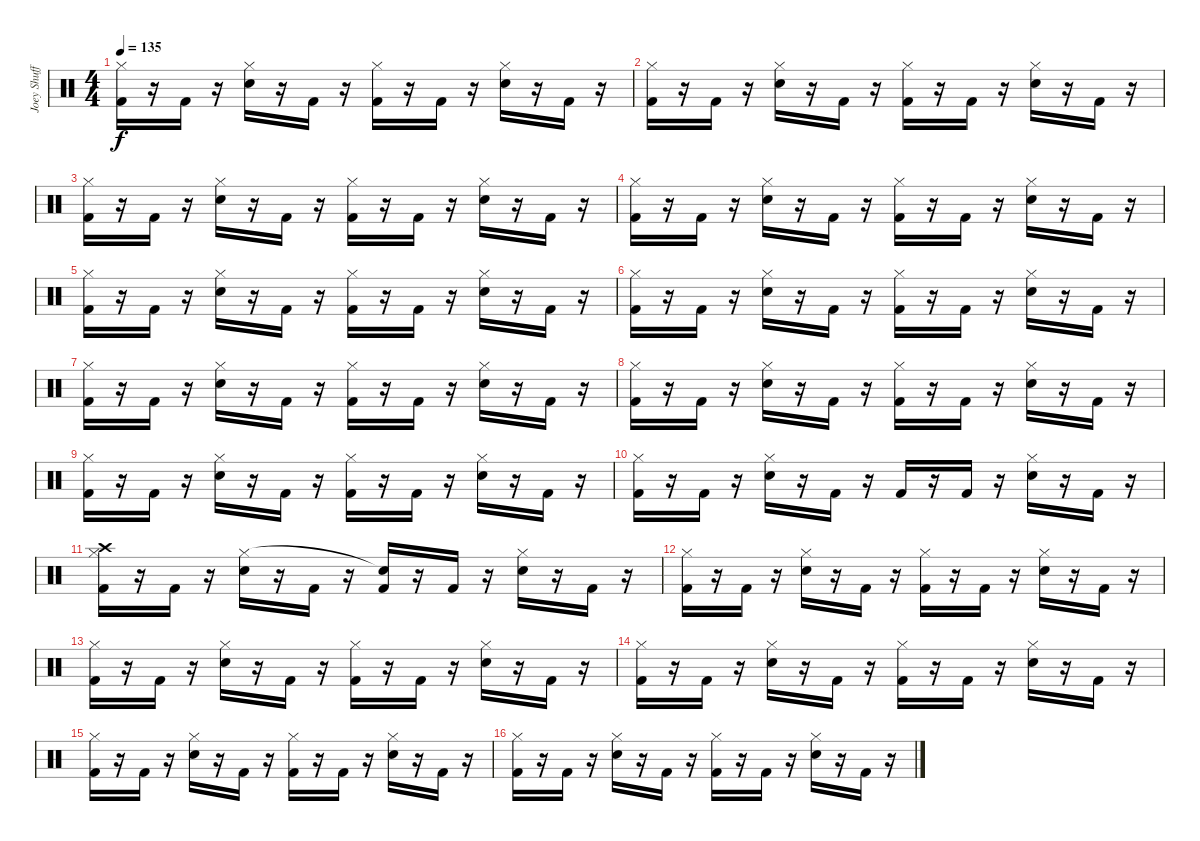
\track ("Joey Shuffield" "Joey Shuff") {instrument percussion}
\staff {score}
\articulation defaults
\ts (4 4)
\tempo 135
\clef neutral
\ks c
("Kick (hit) 2" "Hi-Hat (closed)").16{dy f} r.16 "Kick (hit) 2".16 r.16 ("Snare (hit) 2" "Hi-Hat (closed)").16 r.16 "Kick (hit) 2".16 r.16 ("Kick (hit) 2" "Hi-Hat (closed)").16 r.16 "Kick (hit) 2".16 r.16 ("Snare (hit) 2" "Hi-Hat (closed)").16 r.16 "Kick (hit) 2".16 r.16 |
("Kick (hit) 2" "Hi-Hat (closed)").16 r.16 "Kick (hit) 2".16 r.16 ("Snare (hit) 2" "Hi-Hat (closed)").16 r.16 "Kick (hit) 2".16 r.16 ("Kick (hit) 2" "Hi-Hat (closed)").16 r.16 "Kick (hit) 2".16 r.16 ("Snare (hit) 2" "Hi-Hat (closed)").16 r.16 "Kick (hit) 2".16 r.16 |
("Kick (hit) 2" "Hi-Hat (closed)").16 r.16 "Kick (hit) 2".16 r.16 ("Snare (hit) 2" "Hi-Hat (closed)").16 r.16 "Kick (hit) 2".16 r.16 ("Kick (hit) 2" "Hi-Hat (closed)").16 r.16 "Kick (hit) 2".16 r.16 ("Snare (hit) 2" "Hi-Hat (closed)").16 r.16 "Kick (hit) 2".16 r.16 |
("Kick (hit) 2" "Hi-Hat (closed)").16 r.16 "Kick (hit) 2".16 r.16 ("Snare (hit) 2" "Hi-Hat (closed)").16 r.16 "Kick (hit) 2".16 r.16 ("Kick (hit) 2" "Hi-Hat (closed)").16 r.16 "Kick (hit) 2".16 r.16 ("Snare (hit) 2" "Hi-Hat (closed)").16 r.16 "Kick (hit) 2".16 r.16 |
("Kick (hit) 2" "Hi-Hat (closed)").16 r.16 "Kick (hit) 2".16 r.16 ("Snare (hit) 2" "Hi-Hat (closed)").16 r.16 "Kick (hit) 2".16 r.16 ("Kick (hit) 2" "Hi-Hat (closed)").16 r.16 "Kick (hit) 2".16 r.16 ("Snare (hit) 2" "Hi-Hat (closed)").16 r.16 "Kick (hit) 2".16 r.16 |
("Kick (hit) 2" "Hi-Hat (closed)").16 r.16 "Kick (hit) 2".16 r.16 ("Snare (hit) 2" "Hi-Hat (closed)").16 r.16 "Kick (hit) 2".16 r.16 ("Kick (hit) 2" "Hi-Hat (closed)").16 r.16 "Kick (hit) 2".16 r.16 ("Snare (hit) 2" "Hi-Hat (closed)").16 r.16 "Kick (hit) 2".16 r.16 |
("Kick (hit) 2" "Hi-Hat (closed)").16 r.16 "Kick (hit) 2".16 r.16 ("Snare (hit) 2" "Hi-Hat (closed)").16 r.16 "Kick (hit) 2".16 r.16 ("Kick (hit) 2" "Hi-Hat (closed)").16 r.16 "Kick (hit) 2".16 r.16 ("Snare (hit) 2" "Hi-Hat (closed)").16 r.16 "Kick (hit) 2".16 r.16 |
("Kick (hit) 2" "Hi-Hat (closed)").16 r.16 "Kick (hit) 2".16 r.16 ("Snare (hit) 2" "Hi-Hat (closed)").16 r.16 "Kick (hit) 2".16 r.16 ("Kick (hit) 2" "Hi-Hat (closed)").16 r.16 "Kick (hit) 2".16 r.16 ("Snare (hit) 2" "Hi-Hat (closed)").16 r.16 "Kick (hit) 2".16 r.16 |
("Kick (hit) 2" "Hi-Hat (closed)").16 r.16 "Kick (hit) 2".16 r.16 ("Snare (hit) 2" "Hi-Hat (closed)").16 r.16 "Kick (hit) 2".16 r.16 ("Kick (hit) 2" "Hi-Hat (closed)").16 r.16 "Kick (hit) 2".16 r.16 ("Snare (hit) 2" "Hi-Hat (closed)").16 r.16 "Kick (hit) 2".16 r.16 |
("Kick (hit) 2" "Hi-Hat (closed)").16 r.16 "Kick (hit) 2".16 r.16 ("Snare (hit) 2" "Hi-Hat (closed)").16 r.16 "Kick (hit) 2".16 r.16 "Kick (hit) 2".16 r.16 "Kick (hit) 2".16 r.16 ("Snare (hit) 2" "Hi-Hat (closed)").16 r.16 "Kick (hit) 2".16 r.16 |
("Kick (hit) 2" "Hi-Hat (closed)" "Crash high (hit)").16 r.16 "Kick (hit) 2".16 r.16 ("Snare (hit) 2" "Hi-Hat (closed)").16 r.16 "Kick (hit) 2".16 r.16 ("Kick (hit) 2" "Snare (hit)"{t}).16 r.16 "Kick (hit) 2".16 r.16 ("Snare (hit) 2" "Hi-Hat (closed)").16 r.16 "Kick (hit) 2".16 r.16 |
("Kick (hit) 2" "Hi-Hat (closed)").16 r.16 "Kick (hit) 2".16 r.16 ("Snare (hit) 2" "Hi-Hat (closed)").16 r.16 "Kick (hit) 2".16 r.16 ("Kick (hit) 2" "Hi-Hat (closed)").16 r.16 "Kick (hit) 2".16 r.16 ("Snare (hit) 2" "Hi-Hat (closed)").16 r.16 "Kick (hit) 2".16 r.16 |
("Kick (hit) 2" "Hi-Hat (closed)").16 r.16 "Kick (hit) 2".16 r.16 ("Snare (hit) 2" "Hi-Hat (closed)").16 r.16 "Kick (hit) 2".16 r.16 ("Kick (hit) 2" "Hi-Hat (closed)").16 r.16 "Kick (hit) 2".16 r.16 ("Snare (hit) 2" "Hi-Hat (closed)").16 r.16 "Kick (hit) 2".16 r.16 |
("Kick (hit) 2" "Hi-Hat (closed)").16 r.16 "Kick (hit) 2".16 r.16 ("Snare (hit) 2" "Hi-Hat (closed)").16 r.16 "Kick (hit) 2".16 r.16 ("Kick (hit) 2" "Hi-Hat (closed)").16 r.16 "Kick (hit) 2".16 r.16 ("Snare (hit) 2" "Hi-Hat (closed)").16 r.16 "Kick (hit) 2".16 r.16 |
("Kick (hit) 2" "Hi-Hat (closed)").16 r.16 "Kick (hit) 2".16 r.16 ("Snare (hit) 2" "Hi-Hat (closed)").16 r.16 "Kick (hit) 2".16 r.16 ("Kick (hit) 2" "Hi-Hat (closed)").16 r.16 "Kick (hit) 2".16 r.16 ("Snare (hit) 2" "Hi-Hat (closed)").16 r.16 "Kick (hit) 2".16 r.16 |
("Kick (hit) 2" "Hi-Hat (closed)").16 r.16 "Kick (hit) 2".16 r.16 ("Snare (hit) 2" "Hi-Hat (closed)").16 r.16 "Kick (hit) 2".16 r.16 ("Kick (hit) 2" "Hi-Hat (closed)").16 r.16 "Kick (hit) 2".16 r.16 ("Snare (hit) 2" "Hi-Hat (closed)").16 r.16 "Kick (hit) 2".16 r.16
